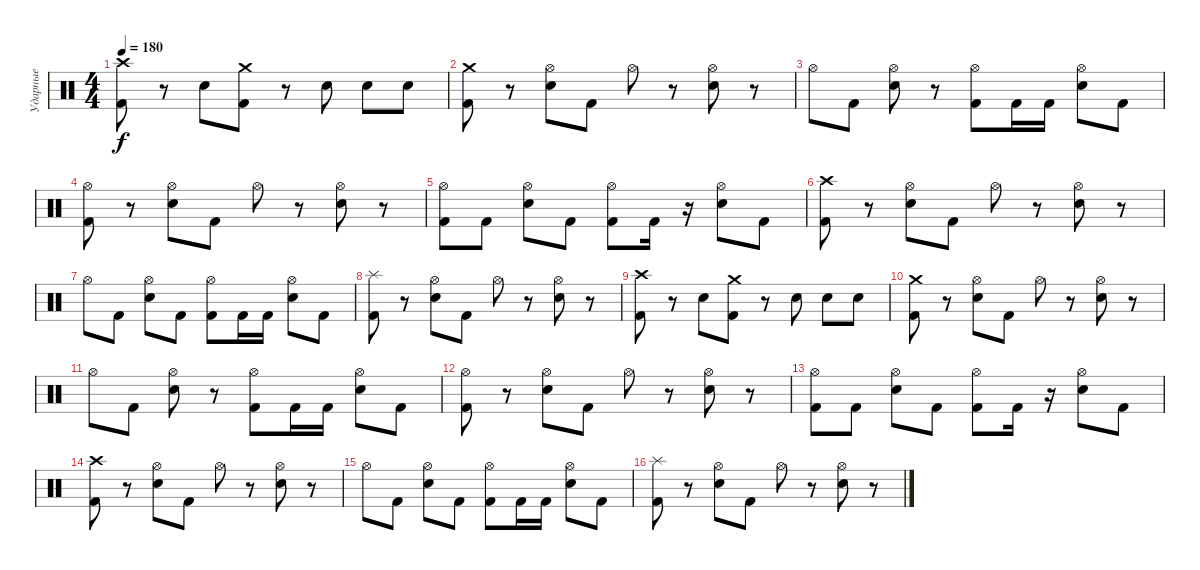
\track ("Ударные" "Ударные") {instrument percussion}
\staff {score}
\articulation defaults
\ts (4 4)
\tempo 180
\clef neutral
\ks c
("Kick (hit) 2" "Crash high (hit)").8{dy f} r.8 "Electric Snare (hit)".8 ("Kick (hit) 2" "Crash medium (hit)").8 r.8 "Electric Snare (hit)".8 "Electric Snare (hit)".8 "Electric Snare (hit)".8 |
("Kick (hit) 2" "Crash medium (hit)").8 r.8 ("Electric Snare (hit)" "Hi-Hat (open)").8 "Kick (hit) 2".8 "Hi-Hat (open)".8 r.8 ("Electric Snare (hit)" "Hi-Hat (open)").8 r.8 |
"Hi-Hat (open)".8 "Kick (hit) 2".8 ("Electric Snare (hit)" "Hi-Hat (open)").8 r.8 ("Kick (hit) 2" "Hi-Hat (open)").8 "Kick (hit) 2".16 "Kick (hit) 2".16 ("Electric Snare (hit)" "Hi-Hat (open)").8 "Kick (hit) 2".8 |
("Kick (hit) 2" "Hi-Hat (open)").8 r.8 ("Electric Snare (hit)" "Hi-Hat (open)").8 "Kick (hit) 2".8 "Hi-Hat (open)".8 r.8 ("Electric Snare (hit)" "Hi-Hat (open)").8 r.8 |
("Kick (hit) 2" "Hi-Hat (open)").8 "Kick (hit) 2".8 ("Electric Snare (hit)" "Hi-Hat (open)").8 "Kick (hit) 2".8 ("Kick (hit) 2" "Hi-Hat (open)").8 "Kick (hit) 2".16 r.16 ("Electric Snare (hit)" "Hi-Hat (open)").8 "Kick (hit) 2".8 |
("Kick (hit) 2" "Crash high (hit)").8 r.8 ("Electric Snare (hit)" "Hi-Hat (open)").8 "Kick (hit) 2".8 "Hi-Hat (open)".8 r.8 ("Electric Snare (hit)" "Hi-Hat (open)").8 r.8 |
"Hi-Hat (open)".8 "Kick (hit) 2".8 ("Electric Snare (hit)" "Hi-Hat (open)").8 "Kick (hit) 2".8 ("Kick (hit) 2" "Hi-Hat (open)").8 "Kick (hit) 2".16 "Kick (hit) 2".16 ("Electric Snare (hit)" "Hi-Hat (open)").8 "Kick (hit) 2".8 |
("Kick (hit) 2" "Splash (hit)").8 r.8 ("Electric Snare (hit)" "Hi-Hat (open)").8 "Kick (hit) 2".8 "Hi-Hat (open)".8 r.8 ("Electric Snare (hit)" "Hi-Hat (open)").8 r.8 |
("Kick (hit) 2" "Crash high (hit)").8 r.8 "Electric Snare (hit)".8 ("Kick (hit) 2" "Crash medium (hit)").8 r.8 "Electric Snare (hit)".8 "Electric Snare (hit)".8 "Electric Snare (hit)".8 |
("Kick (hit) 2" "Crash medium (hit)").8 r.8 ("Electric Snare (hit)" "Hi-Hat (open)").8 "Kick (hit) 2".8 "Hi-Hat (open)".8 r.8 ("Electric Snare (hit)" "Hi-Hat (open)").8 r.8 |
"Hi-Hat (open)".8 "Kick (hit) 2".8 ("Electric Snare (hit)" "Hi-Hat (open)").8 r.8 ("Kick (hit) 2" "Hi-Hat (open)").8 "Kick (hit) 2".16 "Kick (hit) 2".16 ("Electric Snare (hit)" "Hi-Hat (open)").8 "Kick (hit) 2".8 |
("Kick (hit) 2" "Hi-Hat (open)").8 r.8 ("Electric Snare (hit)" "Hi-Hat (open)").8 "Kick (hit) 2".8 "Hi-Hat (open)".8 r.8 ("Electric Snare (hit)" "Hi-Hat (open)").8 r.8 |
("Kick (hit) 2" "Hi-Hat (open)").8 "Kick (hit) 2".8 ("Electric Snare (hit)" "Hi-Hat (open)").8 "Kick (hit) 2".8 ("Kick (hit) 2" "Hi-Hat (open)").8 "Kick (hit) 2".16 r.16 ("Electric Snare (hit)" "Hi-Hat (open)").8 "Kick (hit) 2".8 |
("Kick (hit) 2" "Crash high (hit)").8 r.8 ("Electric Snare (hit)" "Hi-Hat (open)").8 "Kick (hit) 2".8 "Hi-Hat (open)".8 r.8 ("Electric Snare (hit)" "Hi-Hat (open)").8 r.8 |
"Hi-Hat (open)".8 "Kick (hit) 2".8 ("Electric Snare (hit)" "Hi-Hat (open)").8 "Kick (hit) 2".8 ("Kick (hit) 2" "Hi-Hat (open)").8 "Kick (hit) 2".16 "Kick (hit) 2".16 ("Electric Snare (hit)" "Hi-Hat (open)").8 "Kick (hit) 2".8 |
("Kick (hit) 2" "Splash (hit)").8 r.8 ("Electric Snare (hit)" "Hi-Hat (open)").8 "Kick (hit) 2".8 "Hi-Hat (open)".8 r.8 ("Electric Snare (hit)" "Hi-Hat (open)").8 r.8
